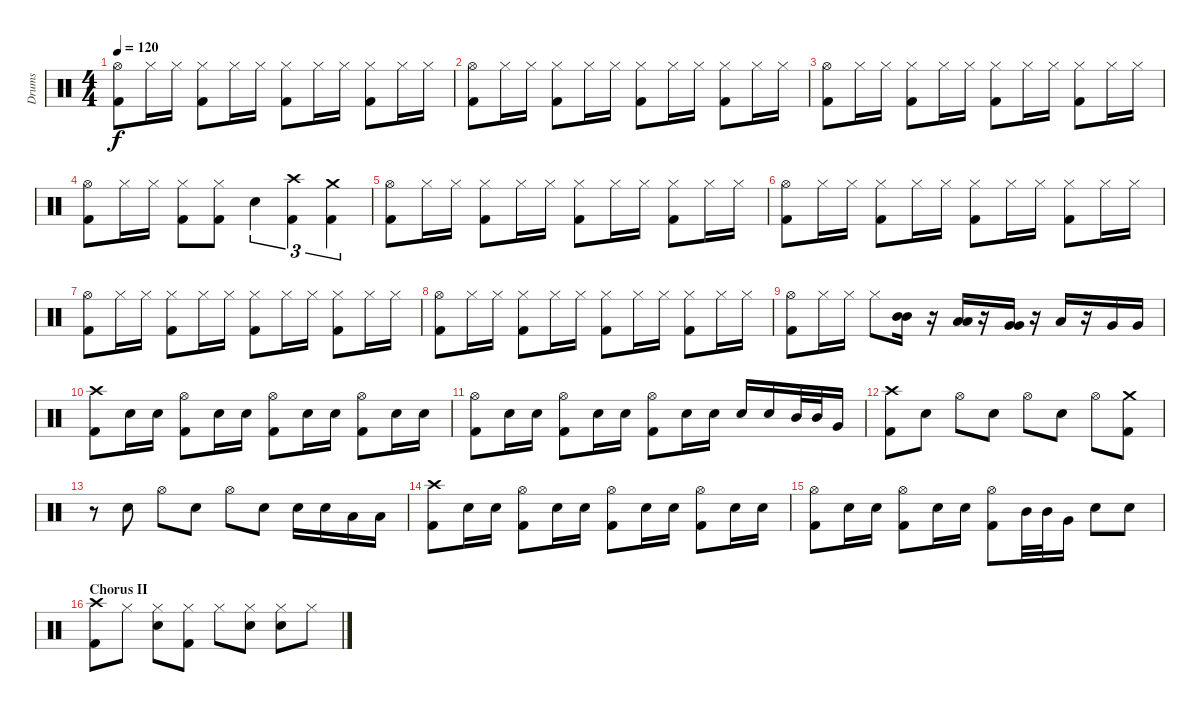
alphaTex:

\track ("Drums" "Drums") {instrument percussion}
\staff {score}
\articulation defaults
\ts (4 4)
\tempo 120
\clef neutral
\ks c
("Hi-Hat (open)" "Kick (hit) 2").8{dy f} "Hi-Hat (closed)".16 "Hi-Hat (closed)".16 ("Hi-Hat (closed)" "Kick (hit) 2").8 "Hi-Hat (closed)".16 "Hi-Hat (closed)".16 ("Hi-Hat (closed)" "Kick (hit) 2").8 "Hi-Hat (closed)".16 "Hi-Hat (closed)".16 ("Hi-Hat (closed)" "Kick (hit) 2").8 "Hi-Hat (closed)".16 "Hi-Hat (closed)".16 |
("Hi-Hat (open)" "Kick (hit) 2").8 "Hi-Hat (closed)".16 "Hi-Hat (closed)".16 ("Hi-Hat (closed)" "Kick (hit) 2").8 "Hi-Hat (closed)".16 "Hi-Hat (closed)".16 ("Hi-Hat (closed)" "Kick (hit) 2").8 "Hi-Hat (closed)".16 "Hi-Hat (closed)".16 ("Hi-Hat (closed)" "Kick (hit) 2").8 "Hi-Hat (closed)".16 "Hi-Hat (closed)".16 |
("Hi-Hat (open)" "Kick (hit) 2").8 "Hi-Hat (closed)".16 "Hi-Hat (closed)".16 ("Hi-Hat (closed)" "Kick (hit) 2").8 "Hi-Hat (closed)".16 "Hi-Hat (closed)".16 ("Hi-Hat (closed)" "Kick (hit) 2").8 "Hi-Hat (closed)".16 "Hi-Hat (closed)".16 ("Hi-Hat (closed)" "Kick (hit) 2").8 "Hi-Hat (closed)".16 "Hi-Hat (closed)".16 |
("Hi-Hat (open)" "Kick (hit) 2").8 "Hi-Hat (closed)".16 "Hi-Hat (closed)".16 ("Hi-Hat (closed)" "Kick (hit) 2").8 ("Hi-Hat (closed)" "Kick (hit) 2").8 "Electric Snare (hit)".4{tu (3 2)} ("Crash high (hit)" "Kick (hit) 2").4{tu (3 2)} ("Crash medium (hit)" "Kick (hit) 2").4{tu (3 2)} |
("Hi-Hat (open)" "Kick (hit) 2").8 "Hi-Hat (closed)".16 "Hi-Hat (closed)".16 ("Hi-Hat (closed)" "Kick (hit) 2").8 "Hi-Hat (closed)".16 "Hi-Hat (closed)".16 ("Hi-Hat (closed)" "Kick (hit) 2").8 "Hi-Hat (closed)".16 "Hi-Hat (closed)".16 ("Hi-Hat (closed)" "Kick (hit) 2").8 "Hi-Hat (closed)".16 "Hi-Hat (closed)".16 |
("Hi-Hat (open)" "Kick (hit) 2").8 "Hi-Hat (closed)".16 "Hi-Hat (closed)".16 ("Hi-Hat (closed)" "Kick (hit) 2").8 "Hi-Hat (closed)".16 "Hi-Hat (closed)".16 ("Hi-Hat (closed)" "Kick (hit) 2").8 "Hi-Hat (closed)".16 "Hi-Hat (closed)".16 ("Hi-Hat (closed)" "Kick (hit) 2").8 "Hi-Hat (closed)".16 "Hi-Hat (closed)".16 |
("Hi-Hat (open)" "Kick (hit) 2").8 "Hi-Hat (closed)".16 "Hi-Hat (closed)".16 ("Hi-Hat (closed)" "Kick (hit) 2").8 "Hi-Hat (closed)".16 "Hi-Hat (closed)".16 ("Hi-Hat (closed)" "Kick (hit) 2").8 "Hi-Hat (closed)".16 "Hi-Hat (closed)".16 ("Hi-Hat (closed)" "Kick (hit) 2").8 "Hi-Hat (closed)".16 "Hi-Hat (closed)".16 |
("Hi-Hat (open)" "Kick (hit) 2").8 "Hi-Hat (closed)".16 "Hi-Hat (closed)".16 ("Hi-Hat (closed)" "Kick (hit) 2").8 "Hi-Hat (closed)".16 "Hi-Hat (closed)".16 ("Hi-Hat (closed)" "Kick (hit) 2").8 "Hi-Hat (closed)".16 "Hi-Hat (closed)".16 ("Hi-Hat (closed)" "Kick (hit) 2").8 "Hi-Hat (closed)".16 "Hi-Hat (closed)".16 |
("Hi-Hat (open)" "Kick (hit) 2").8 "Hi-Hat (closed)".16 "Hi-Hat (closed)".16 "Hi-Hat (closed)".8 ("Mid Tom (hit)" "Mid Tom (hit)").16 r.16 ("Low Tom (hit)" "Low Tom (hit)").16 r.16 ("Very Low Tom (hit)" "Very Low Tom (hit)").16 r.16 "Low Tom (hit)".16 r.16 "Very Low Tom (hit)".16 "Very Low Tom (hit)".16 |
("Crash high (hit)" "Kick (hit) 2").8 "Electric Snare (hit)".16 "Electric Snare (hit)".16 ("Hi-Hat (open)" "Kick (hit) 2").8 "Electric Snare (hit)".16 "Electric Snare (hit)".16 ("Hi-Hat (open)" "Kick (hit) 2").8 "Electric Snare (hit)".16 "Electric Snare (hit)".16 ("Hi-Hat (open)" "Kick (hit) 2").8 "Electric Snare (hit)".16 "Electric Snare (hit)".16 |
("Hi-Hat (open)" "Kick (hit) 2").8 "Electric Snare (hit)".16 "Electric Snare (hit)".16 ("Hi-Hat (open)" "Kick (hit) 2").8 "Electric Snare (hit)".16 "Electric Snare (hit)".16 ("Hi-Hat (open)" "Kick (hit) 2").8 "Electric Snare (hit)".16 "Electric Snare (hit)".16 "Electric Snare (hit)".16 "Electric Snare (hit)".16 "Mid Tom (hit)".32 "Mid Tom (hit)".32 "Very Low Tom (hit)".16 |
("Crash high (hit)" "Kick (hit) 2").8 "Electric Snare (hit)".8 "Hi-Hat (open)".8 "Electric Snare (hit)".8 "Hi-Hat (open)".8 "Electric Snare (hit)".8 "Hi-Hat (open)".8 ("Crash medium (hit)" "Kick (hit) 2").8 |
r.8 "Electric Snare (hit)".8 "Hi-Hat (open)".8 "Electric Snare (hit)".8 "Hi-Hat (open)".8 "Electric Snare (hit)".8 "Electric Snare (hit)".16 "Electric Snare (hit)".16 "Low Tom (hit)".16 "Low Tom (hit)".16 |
("Crash high (hit)" "Kick (hit) 2").8 "Electric Snare (hit)".16 "Electric Snare (hit)".16 ("Hi-Hat (open)" "Kick (hit) 2").8 "Electric Snare (hit)".16 "Electric Snare (hit)".16 ("Hi-Hat (open)" "Kick (hit) 2").8 "Electric Snare (hit)".16 "Electric Snare (hit)".16 ("Hi-Hat (open)" "Kick (hit) 2").8 "Electric Snare (hit)".16 "Electric Snare (hit)".16 |
("Hi-Hat (open)" "Kick (hit) 2").8 "Electric Snare (hit)".16 "Electric Snare (hit)".16 ("Hi-Hat (open)" "Kick (hit) 2").8 "Electric Snare (hit)".16 "Electric Snare (hit)".16 ("Hi-Hat (open)" "Kick (hit) 2").8 "Mid Tom (hit)".32 "Mid Tom (hit)".32 "Very Low Tom (hit)".16 "Electric Snare (hit)".8 "Electric Snare (hit)".8 |
\section ("" "Chorus II")
("Crash high (hit)" "Kick (hit) 2").8 "Hi-Hat (closed)".8 ("Electric Snare (hit)" "Hi-Hat (closed)").8 ("Hi-Hat (closed)" "Kick (hit) 2").8 "Hi-Hat (closed)".8 ("Electric Snare (hit)" "Hi-Hat (closed)").8 ("Electric Snare (hit)" "Hi-Hat (closed)").8 "Hi-Hat (closed)".8
